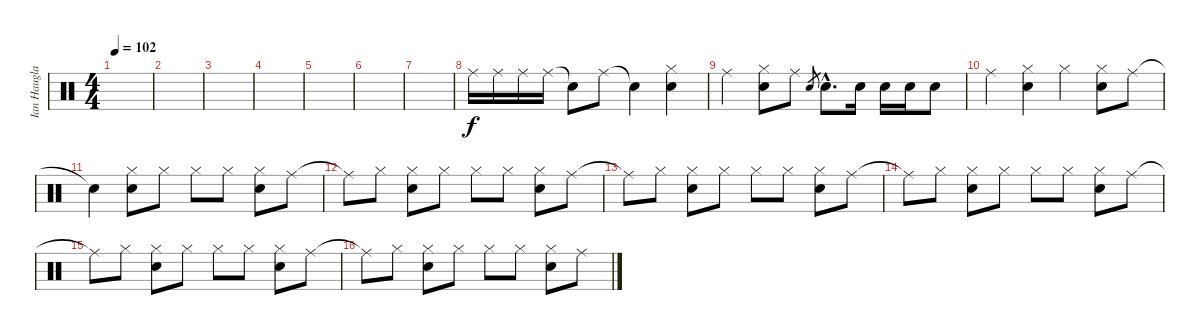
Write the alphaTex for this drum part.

\track ("Ian Haugland Drums 2" "Ian Haugla") {instrument percussion}
\staff {score}
\articulation defaults
\ts (4 4)
\tempo 102
\clef neutral
\ks c
|
|
|
|
|
|
|
"Ride (middle)".16 "Ride (middle)".16 "Ride (middle)".16 "Ride (middle)".16 "Snare (hit)"{t}.8 "Ride (middle)".8 "Snare (hit)"{t}.4 ("Hi-Hat (closed)" "Snare (hit) 2").4 |
"Ride (middle)".4 ("Hi-Hat (closed)" "Snare (hit) 2").8 "Ride (middle)".8 "Snare (hit) 2".8{gr} "Snare (hit) 2"{hac}.8{d} "Snare (hit) 2".16 "Snare (hit) 2".16 "Snare (hit) 2".16 "Snare (hit) 2".8 |
"Ride (middle)".4 ("Hi-Hat (closed)" "Snare (hit) 2").4 "Hi-Hat (closed)".4 ("Hi-Hat (closed)" "Snare (hit) 2").8 "Ride (middle)".8 |
"Snare (hit)"{t}.4 ("Hi-Hat (closed)" "Snare (hit) 2").8 "Hi-Hat (closed)".8 "Hi-Hat (closed)".8 "Hi-Hat (closed)".8 ("Hi-Hat (closed)" "Snare (hit) 2").8 "Ride (middle)".8 |
"Ride (middle)"{t}.8 "Hi-Hat (closed)".8 ("Hi-Hat (closed)" "Snare (hit) 2").8 "Hi-Hat (closed)".8 "Hi-Hat (closed)".8 "Hi-Hat (closed)".8 ("Hi-Hat (closed)" "Snare (hit) 2").8 "Ride (middle)".8 |
"Ride (middle)"{t}.8 "Hi-Hat (closed)".8 ("Hi-Hat (closed)" "Snare (hit) 2").8 "Hi-Hat (closed)".8 "Hi-Hat (closed)".8 "Hi-Hat (closed)".8 ("Hi-Hat (closed)" "Snare (hit) 2").8 "Ride (middle)".8 |
"Ride (middle)"{t}.8 "Hi-Hat (closed)".8 ("Hi-Hat (closed)" "Snare (hit) 2").8 "Hi-Hat (closed)".8 "Hi-Hat (closed)".8 "Hi-Hat (closed)".8 ("Hi-Hat (closed)" "Snare (hit) 2").8 "Ride (middle)".8 |
"Ride (middle)"{t}.8 "Hi-Hat (closed)".8 ("Hi-Hat (closed)" "Snare (hit) 2").8 "Hi-Hat (closed)".8 "Hi-Hat (closed)".8 "Hi-Hat (closed)".8 ("Hi-Hat (closed)" "Snare (hit) 2").8 "Ride (middle)".8 |
"Ride (middle)"{t}.8 "Hi-Hat (closed)".8 ("Hi-Hat (closed)" "Snare (hit) 2").8 "Hi-Hat (closed)".8 "Hi-Hat (closed)".8 "Hi-Hat (closed)".8 ("Hi-Hat (closed)" "Snare (hit) 2").8 "Ride (middle)".8
